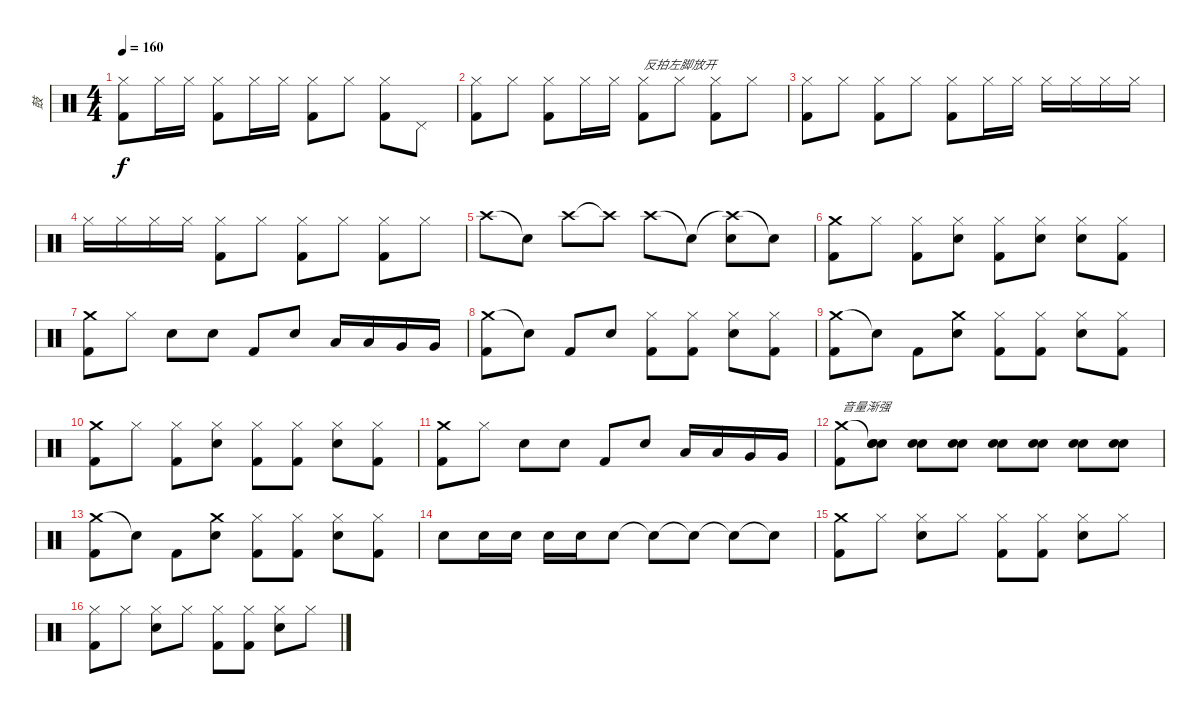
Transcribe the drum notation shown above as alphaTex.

\track ("鼓" "鼓") {instrument percussion}
\staff {score}
\articulation defaults
\ts (4 4)
\tempo 160
\clef neutral
\ks c
("Hi-Hat (closed)" "Kick (hit) 2").8{dy f} "Hi-Hat (closed)".16 "Hi-Hat (closed)".16 ("Hi-Hat (closed)" "Kick (hit) 2").8 "Hi-Hat (closed)".16 "Hi-Hat (closed)".16 ("Hi-Hat (closed)" "Kick (hit) 2").8 "Hi-Hat (closed)".8 ("Hi-Hat (closed)" "Kick (hit) 2").8 "Pedal Hi-Hat (hit)".8 |
("Hi-Hat (closed)" "Kick (hit) 2").8 "Hi-Hat (closed)".8 ("Hi-Hat (closed)" "Kick (hit) 2").8 "Hi-Hat (closed)".16 "Hi-Hat (closed)".16 ("Hi-Hat (closed)" "Kick (hit) 2").8{txt "反拍左脚放开"} "Hi-Hat (closed)".8 ("Hi-Hat (closed)" "Kick (hit) 2").8 "Hi-Hat (closed)".8 |
("Hi-Hat (closed)" "Kick (hit) 2").8 "Hi-Hat (closed)".8 ("Hi-Hat (closed)" "Kick (hit) 2").8 "Hi-Hat (closed)".8 ("Hi-Hat (closed)" "Kick (hit) 2").8 "Hi-Hat (closed)".16 "Hi-Hat (closed)".16 "Hi-Hat (closed)".16 "Hi-Hat (closed)".16 "Hi-Hat (closed)".16 "Hi-Hat (closed)".16 |
"Hi-Hat (closed)".16 "Hi-Hat (closed)".16 "Hi-Hat (closed)".16 "Hi-Hat (closed)".16 ("Hi-Hat (closed)" "Kick (hit) 2").8 "Hi-Hat (closed)".8 ("Hi-Hat (closed)" "Kick (hit) 2").8 "Hi-Hat (closed)".8 ("Hi-Hat (closed)" "Kick (hit) 2").8 "Hi-Hat (closed)".8 |
"Crash high (hit)".8 "Snare (hit)"{t}.8 "Crash high (hit)".8 "Crash high (hit)"{t}.8 "Crash high (hit)".8 "Snare (hit)"{t}.8 ("Crash high (hit)"{t} "Electric Snare (hit)").8 "Snare (hit)"{t}.8 |
("Crash medium (hit)" "Kick (hit) 2").8 "Hi-Hat (closed)".8 ("Hi-Hat (closed)" "Kick (hit) 2").8 ("Hi-Hat (closed)" "Electric Snare (hit)").8 ("Hi-Hat (closed)" "Kick (hit) 2").8 ("Hi-Hat (closed)" "Electric Snare (hit)").8 ("Hi-Hat (closed)" "Electric Snare (hit)").8 ("Hi-Hat (closed)" "Kick (hit) 2").8 |
("Crash medium (hit)" "Kick (hit) 2").8 "Hi-Hat (closed)".8 "Electric Snare (hit)".8 "Electric Snare (hit)".8 "Kick (hit) 2".8 "Electric Snare (hit)".8 "Low Tom (hit)".16 "Low Tom (hit)".16 "Very Low Tom (hit)".16 "Very Low Tom (hit)".16 |
("Crash medium (hit)" "Kick (hit) 2").8 "Snare (hit)"{t}.8 "Kick (hit) 2".8 "Electric Snare (hit)".8 ("Hi-Hat (closed)" "Kick (hit) 2").8 ("Hi-Hat (closed)" "Kick (hit) 2").8 ("Hi-Hat (closed)" "Electric Snare (hit)").8 ("Hi-Hat (closed)" "Kick (hit) 2").8 |
("Crash medium (hit)" "Kick (hit) 2").8 "Snare (hit)"{t}.8 "Kick (hit) 2".8 ("Crash medium (hit)" "Electric Snare (hit)").8 ("Hi-Hat (closed)" "Kick (hit) 2").8 ("Hi-Hat (closed)" "Kick (hit) 2").8 ("Hi-Hat (closed)" "Electric Snare (hit)").8 ("Hi-Hat (closed)" "Kick (hit) 2").8 |
("Crash medium (hit)" "Kick (hit) 2").8 "Hi-Hat (closed)".8 ("Hi-Hat (closed)" "Kick (hit) 2").8 ("Hi-Hat (closed)" "Electric Snare (hit)").8 ("Hi-Hat (closed)" "Kick (hit) 2").8 ("Hi-Hat (closed)" "Kick (hit) 2").8 ("Hi-Hat (closed)" "Electric Snare (hit)").8 ("Hi-Hat (closed)" "Kick (hit) 2").8 |
("Crash medium (hit)" "Kick (hit) 2").8 "Hi-Hat (closed)".8 "Electric Snare (hit)".8 "Electric Snare (hit)".8 "Kick (hit) 2".8 "Electric Snare (hit)".8 "Low Tom (hit)".16 "Low Tom (hit)".16 "Very Low Tom (hit)".16 "Very Low Tom (hit)".16 |
("Crash medium (hit)" "Kick (hit) 2").8{txt "音量渐强"} ("Snare (hit)"{t} "Electric Snare (hit)" "Electric Snare (hit)").8 ("Electric Snare (hit)" "Electric Snare (hit)").8 ("Electric Snare (hit)" "Electric Snare (hit)").8 ("Electric Snare (hit)" "Electric Snare (hit)").8 ("Electric Snare (hit)" "Electric Snare (hit)").8 ("Electric Snare (hit)" "Electric Snare (hit)").8 ("Electric Snare (hit)" "Electric Snare (hit)").8 |
("Crash medium (hit)" "Kick (hit) 2").8 "Snare (hit)"{t}.8 "Kick (hit) 2".8 ("Crash medium (hit)" "Electric Snare (hit)").8 ("Hi-Hat (closed)" "Kick (hit) 2").8 ("Hi-Hat (closed)" "Kick (hit) 2").8 ("Hi-Hat (closed)" "Electric Snare (hit)").8 ("Hi-Hat (closed)" "Kick (hit) 2").8 |
"Electric Snare (hit)".8 "Electric Snare (hit)".16 "Electric Snare (hit)".16 "Electric Snare (hit)".16 "Electric Snare (hit)".16 "Electric Snare (hit)".8 "Snare (hit)"{t}.8 "Snare (hit)"{t}.8 "Snare (hit)"{t}.8 "Snare (hit)"{t}.8 |
("Crash medium (hit)" "Kick (hit) 2").8 "Hi-Hat (closed)".8 ("Hi-Hat (closed)" "Electric Snare (hit)").8 "Hi-Hat (closed)".8 ("Hi-Hat (closed)" "Kick (hit) 2").8 ("Hi-Hat (closed)" "Kick (hit) 2").8 ("Hi-Hat (closed)" "Electric Snare (hit)").8 "Hi-Hat (closed)".8 |
("Hi-Hat (closed)" "Kick (hit) 2").8 "Hi-Hat (closed)".8 ("Hi-Hat (closed)" "Electric Snare (hit)").8 "Hi-Hat (closed)".8 ("Hi-Hat (closed)" "Kick (hit) 2").8 ("Hi-Hat (closed)" "Kick (hit) 2").8 ("Hi-Hat (closed)" "Electric Snare (hit)").8 "Hi-Hat (closed)".8
